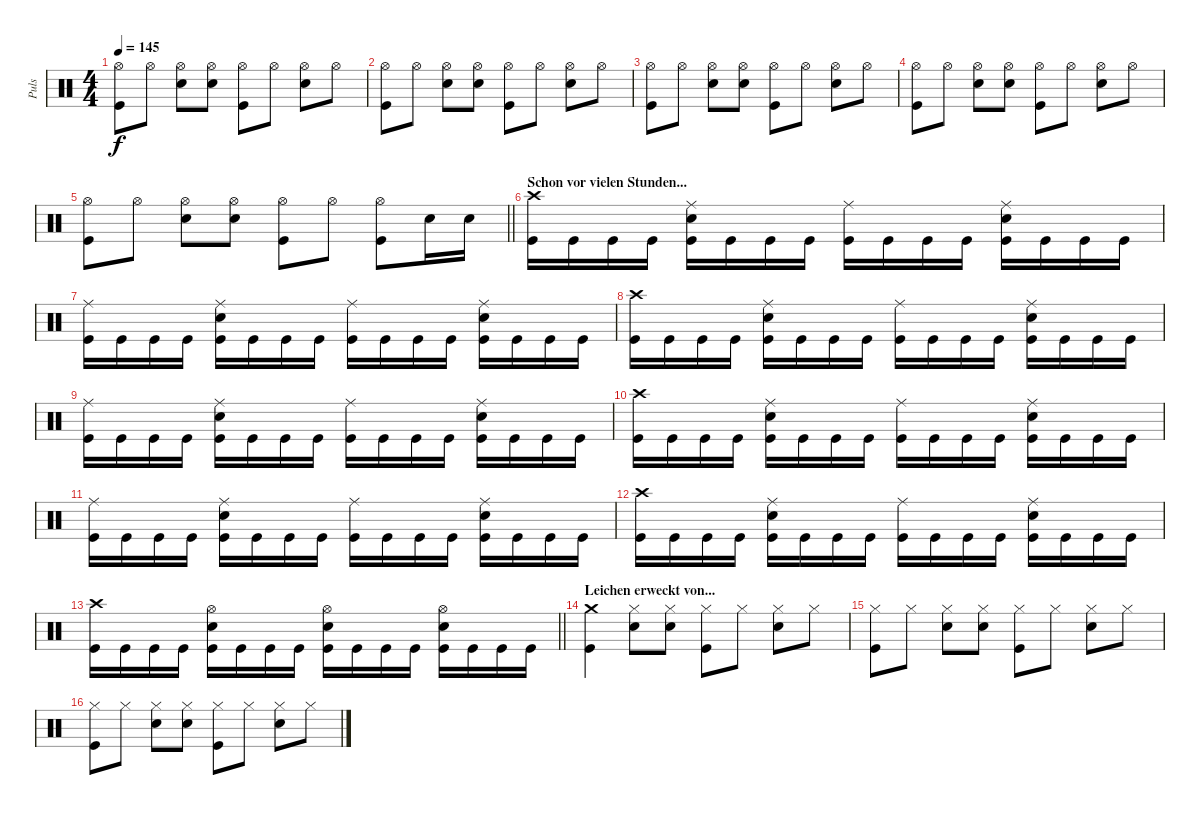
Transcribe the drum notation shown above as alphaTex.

\track ("Puls" "Puls") {instrument percussion}
\staff {score}
\articulation defaults
\ts (4 4)
\tempo 145
\clef neutral
\ks c
("Hi-Hat (open)" "Kick (hit)").8{dy f} "Hi-Hat (open)".8 ("Hi-Hat (open)" "Snare (hit) 2").8 ("Hi-Hat (open)" "Snare (hit) 2").8 ("Hi-Hat (open)" "Kick (hit)").8 "Hi-Hat (open)".8 ("Hi-Hat (open)" "Snare (hit) 2").8 "Hi-Hat (open)".8 |
("Hi-Hat (open)" "Kick (hit)").8 "Hi-Hat (open)".8 ("Hi-Hat (open)" "Snare (hit) 2").8 ("Hi-Hat (open)" "Snare (hit) 2").8 ("Hi-Hat (open)" "Kick (hit)").8 "Hi-Hat (open)".8 ("Hi-Hat (open)" "Snare (hit) 2").8 "Hi-Hat (open)".8 |
("Hi-Hat (open)" "Kick (hit)").8 "Hi-Hat (open)".8 ("Hi-Hat (open)" "Snare (hit) 2").8 ("Hi-Hat (open)" "Snare (hit) 2").8 ("Hi-Hat (open)" "Kick (hit)").8 "Hi-Hat (open)".8 ("Hi-Hat (open)" "Snare (hit) 2").8 "Hi-Hat (open)".8 |
("Hi-Hat (open)" "Kick (hit)").8 "Hi-Hat (open)".8 ("Hi-Hat (open)" "Snare (hit) 2").8 ("Hi-Hat (open)" "Snare (hit) 2").8 ("Hi-Hat (open)" "Kick (hit)").8 "Hi-Hat (open)".8 ("Hi-Hat (open)" "Snare (hit) 2").8 "Hi-Hat (open)".8 |
\barLineRight lightlight
("Hi-Hat (open)" "Kick (hit)").8 "Hi-Hat (open)".8 ("Hi-Hat (open)" "Snare (hit) 2").8 ("Hi-Hat (open)" "Snare (hit) 2").8 ("Hi-Hat (open)" "Kick (hit)").8 "Hi-Hat (open)".8 ("Hi-Hat (open)" "Kick (hit)").8 "Snare (hit) 2".16 "Snare (hit) 2".16 |
\section ("" "Schon vor vielen Stunden...")
("Crash high (hit)" "Kick (hit)").16 "Kick (hit)".16 "Kick (hit)".16 "Kick (hit)".16 ("Kick (hit)" "Snare (hit) 2" "Ride (middle)").16 "Kick (hit)".16 "Kick (hit)".16 "Kick (hit)".16 ("Kick (hit)" "Ride (middle)").16 "Kick (hit)".16 "Kick (hit)".16 "Kick (hit)".16 ("Kick (hit)" "Snare (hit) 2" "Ride (middle)").16 "Kick (hit)".16 "Kick (hit)".16 "Kick (hit)".16 |
("Ride (middle)" "Kick (hit)").16 "Kick (hit)".16 "Kick (hit)".16 "Kick (hit)".16 ("Kick (hit)" "Snare (hit) 2" "Ride (middle)").16 "Kick (hit)".16 "Kick (hit)".16 "Kick (hit)".16 ("Kick (hit)" "Ride (middle)").16 "Kick (hit)".16 "Kick (hit)".16 "Kick (hit)".16 ("Kick (hit)" "Snare (hit) 2" "Ride (middle)").16 "Kick (hit)".16 "Kick (hit)".16 "Kick (hit)".16 |
("Crash high (hit)" "Kick (hit)").16 "Kick (hit)".16 "Kick (hit)".16 "Kick (hit)".16 ("Kick (hit)" "Snare (hit) 2" "Ride (middle)").16 "Kick (hit)".16 "Kick (hit)".16 "Kick (hit)".16 ("Kick (hit)" "Ride (middle)").16 "Kick (hit)".16 "Kick (hit)".16 "Kick (hit)".16 ("Kick (hit)" "Snare (hit) 2" "Ride (middle)").16 "Kick (hit)".16 "Kick (hit)".16 "Kick (hit)".16 |
("Ride (middle)" "Kick (hit)").16 "Kick (hit)".16 "Kick (hit)".16 "Kick (hit)".16 ("Kick (hit)" "Snare (hit) 2" "Ride (middle)").16 "Kick (hit)".16 "Kick (hit)".16 "Kick (hit)".16 ("Kick (hit)" "Ride (middle)").16 "Kick (hit)".16 "Kick (hit)".16 "Kick (hit)".16 ("Kick (hit)" "Snare (hit) 2" "Ride (middle)").16 "Kick (hit)".16 "Kick (hit)".16 "Kick (hit)".16 |
("Crash high (hit)" "Kick (hit)").16 "Kick (hit)".16 "Kick (hit)".16 "Kick (hit)".16 ("Kick (hit)" "Snare (hit) 2" "Ride (middle)").16 "Kick (hit)".16 "Kick (hit)".16 "Kick (hit)".16 ("Kick (hit)" "Ride (middle)").16 "Kick (hit)".16 "Kick (hit)".16 "Kick (hit)".16 ("Kick (hit)" "Snare (hit) 2" "Ride (middle)").16 "Kick (hit)".16 "Kick (hit)".16 "Kick (hit)".16 |
("Ride (middle)" "Kick (hit)").16 "Kick (hit)".16 "Kick (hit)".16 "Kick (hit)".16 ("Kick (hit)" "Snare (hit) 2" "Ride (middle)").16 "Kick (hit)".16 "Kick (hit)".16 "Kick (hit)".16 ("Kick (hit)" "Ride (middle)").16 "Kick (hit)".16 "Kick (hit)".16 "Kick (hit)".16 ("Kick (hit)" "Snare (hit) 2" "Ride (middle)").16 "Kick (hit)".16 "Kick (hit)".16 "Kick (hit)".16 |
("Crash high (hit)" "Kick (hit)").16 "Kick (hit)".16 "Kick (hit)".16 "Kick (hit)".16 ("Kick (hit)" "Snare (hit) 2" "Ride (middle)").16 "Kick (hit)".16 "Kick (hit)".16 "Kick (hit)".16 ("Kick (hit)" "Ride (middle)").16 "Kick (hit)".16 "Kick (hit)".16 "Kick (hit)".16 ("Kick (hit)" "Snare (hit) 2" "Ride (middle)").16 "Kick (hit)".16 "Kick (hit)".16 "Kick (hit)".16 |
\barLineRight lightlight
("Crash high (hit)" "Kick (hit)").16 "Kick (hit)".16 "Kick (hit)".16 "Kick (hit)".16 ("Kick (hit)" "Hi-Hat (open)" "Snare (hit) 2").16 "Kick (hit)".16 "Kick (hit)".16 "Kick (hit)".16 ("Kick (hit)" "Hi-Hat (open)" "Snare (hit) 2").16 "Kick (hit)".16 "Kick (hit)".16 "Kick (hit)".16 ("Kick (hit)" "Hi-Hat (open)" "Snare (hit) 2").16 "Kick (hit)".16 "Kick (hit)".16 "Kick (hit)".16 |
\section ("" "Leichen erweckt von... ")
("Crash medium (hit)" "Kick (hit)").4 ("Hi-Hat (closed)" "Snare (hit) 2").8 ("Hi-Hat (closed)" "Snare (hit) 2").8 ("Hi-Hat (closed)" "Kick (hit)").8 "Hi-Hat (closed)".8 ("Hi-Hat (closed)" "Snare (hit) 2").8 "Hi-Hat (closed)".8 |
("Hi-Hat (closed)" "Kick (hit)").8 "Hi-Hat (closed)".8 ("Hi-Hat (closed)" "Snare (hit) 2").8 ("Hi-Hat (closed)" "Snare (hit) 2").8 ("Hi-Hat (closed)" "Kick (hit)").8 "Hi-Hat (closed)".8 ("Hi-Hat (closed)" "Snare (hit) 2").8 "Hi-Hat (closed)".8 |
("Hi-Hat (closed)" "Kick (hit)").8 "Hi-Hat (closed)".8 ("Hi-Hat (closed)" "Snare (hit) 2").8 ("Hi-Hat (closed)" "Snare (hit) 2").8 ("Hi-Hat (closed)" "Kick (hit)").8 "Hi-Hat (closed)".8 ("Hi-Hat (closed)" "Snare (hit) 2").8 "Hi-Hat (closed)".8
